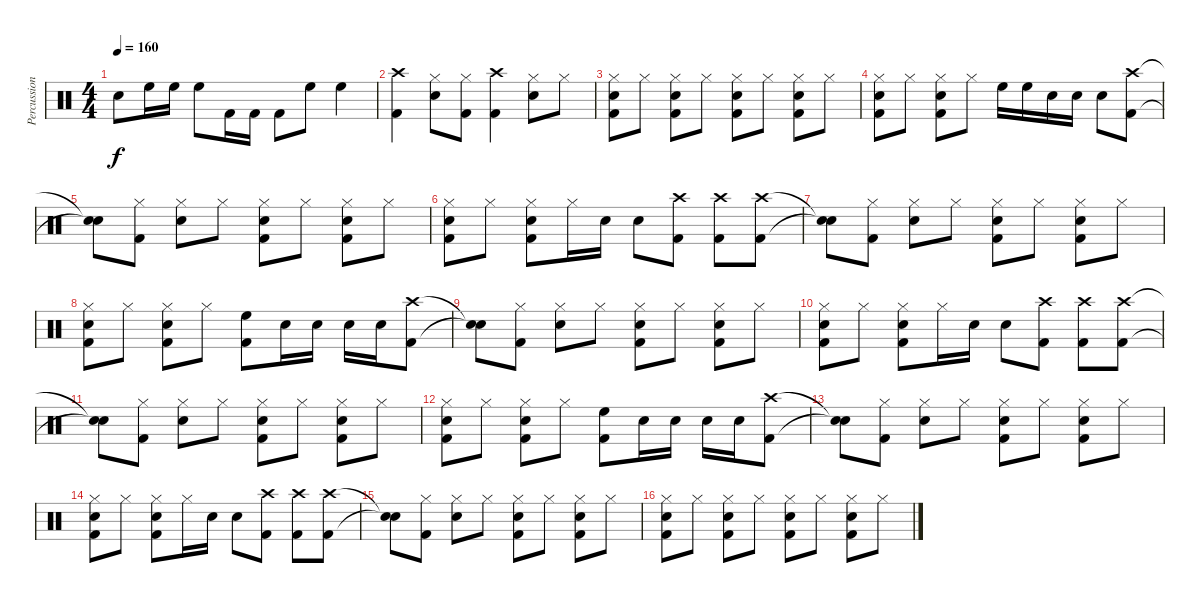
\track ("Percussion" "Percussion") {instrument percussion}
\staff {score}
\articulation defaults
\ts (4 4)
\tempo 160
\clef neutral
\ks c "Snare (hit) 2".8{dy f} "High Floor Tom (hit)".16 "High Floor Tom (hit)".16 "High Floor Tom (hit)".8 "Kick (hit) 2".16 "Kick (hit) 2".16 "Kick (hit) 2".8 "High Floor Tom (hit)".8 "High Floor Tom (hit)".4
|
("Crash high (hit)" "Kick (hit) 2").4 ("Hi-Hat (closed)" "Snare (hit) 2").8 ("Hi-Hat (closed)" "Kick (hit) 2").8 ("Crash high (hit)" "Kick (hit) 2").4 ("Hi-Hat (closed)" "Snare (hit) 2").8 "Hi-Hat (closed)".8 |
("Hi-Hat (closed)" "Snare (hit) 2" "Kick (hit) 2").8 "Hi-Hat (closed)".8 ("Hi-Hat (closed)" "Snare (hit) 2" "Kick (hit) 2").8 "Hi-Hat (closed)".8 ("Hi-Hat (closed)" "Snare (hit) 2" "Kick (hit) 2").8 "Hi-Hat (closed)".8 ("Hi-Hat (closed)" "Snare (hit) 2" "Kick (hit) 2").8 "Hi-Hat (closed)".8 |
("Hi-Hat (closed)" "Snare (hit) 2" "Kick (hit) 2").8 "Hi-Hat (closed)".8 ("Hi-Hat (closed)" "Snare (hit) 2" "Kick (hit) 2").8 "Hi-Hat (closed)".8 "High Floor Tom (hit)".16 "High Floor Tom (hit)".16 "Snare (hit) 2".16 "Snare (hit) 2".16 "Snare (hit) 2".8 ("Crash high (hit)" "Kick (hit) 2").8 |
("Snare (hit)"{t} "Snare (hit)"{t}).8 ("Hi-Hat (closed)" "Kick (hit) 2").8 ("Hi-Hat (closed)" "Snare (hit) 2").8 "Hi-Hat (closed)".8 ("Hi-Hat (closed)" "Snare (hit) 2" "Kick (hit) 2").8 "Hi-Hat (closed)".8 ("Hi-Hat (closed)" "Snare (hit) 2" "Kick (hit) 2").8 "Hi-Hat (closed)".8 |
("Hi-Hat (closed)" "Snare (hit) 2" "Kick (hit) 2").8 "Hi-Hat (closed)".8 ("Hi-Hat (closed)" "Snare (hit) 2" "Kick (hit) 2").8 "Hi-Hat (closed)".16 "Snare (hit) 2".16 "Snare (hit) 2".8 ("Crash high (hit)" "Kick (hit) 2").8 ("Crash high (hit)" "Kick (hit) 2").8 ("Crash high (hit)" "Kick (hit) 2").8 |
("Snare (hit)"{t} "Snare (hit)"{t}).8 ("Hi-Hat (closed)" "Kick (hit) 2").8 ("Hi-Hat (closed)" "Snare (hit) 2").8 "Hi-Hat (closed)".8 ("Hi-Hat (closed)" "Snare (hit) 2" "Kick (hit) 2").8 "Hi-Hat (closed)".8 ("Hi-Hat (closed)" "Snare (hit) 2" "Kick (hit) 2").8 "Hi-Hat (closed)".8 |
("Hi-Hat (closed)" "Snare (hit) 2" "Kick (hit) 2").8 "Hi-Hat (closed)".8 ("Hi-Hat (closed)" "Snare (hit) 2" "Kick (hit) 2").8 "Hi-Hat (closed)".8 ("High Floor Tom (hit)" "Kick (hit) 2").8 "Snare (hit) 2".16 "Snare (hit) 2".16 "Snare (hit) 2".16 "Snare (hit) 2".16 ("Crash high (hit)" "Kick (hit) 2").8 |
("Snare (hit)"{t} "Snare (hit)"{t}).8 ("Hi-Hat (closed)" "Kick (hit) 2").8 ("Hi-Hat (closed)" "Snare (hit) 2").8 "Hi-Hat (closed)".8 ("Hi-Hat (closed)" "Snare (hit) 2" "Kick (hit) 2").8 "Hi-Hat (closed)".8 ("Hi-Hat (closed)" "Snare (hit) 2" "Kick (hit) 2").8 "Hi-Hat (closed)".8 |
("Hi-Hat (closed)" "Snare (hit) 2" "Kick (hit) 2").8 "Hi-Hat (closed)".8 ("Hi-Hat (closed)" "Snare (hit) 2" "Kick (hit) 2").8 "Hi-Hat (closed)".16 "Snare (hit) 2".16 "Snare (hit) 2".8 ("Crash high (hit)" "Kick (hit) 2").8 ("Crash high (hit)" "Kick (hit) 2").8 ("Crash high (hit)" "Kick (hit) 2").8 |
("Snare (hit)"{t} "Snare (hit)"{t}).8 ("Hi-Hat (closed)" "Kick (hit) 2").8 ("Hi-Hat (closed)" "Snare (hit) 2").8 "Hi-Hat (closed)".8 ("Hi-Hat (closed)" "Snare (hit) 2" "Kick (hit) 2").8 "Hi-Hat (closed)".8 ("Hi-Hat (closed)" "Snare (hit) 2" "Kick (hit) 2").8 "Hi-Hat (closed)".8 |
("Hi-Hat (closed)" "Snare (hit) 2" "Kick (hit) 2").8 "Hi-Hat (closed)".8 ("Hi-Hat (closed)" "Snare (hit) 2" "Kick (hit) 2").8 "Hi-Hat (closed)".8 ("High Floor Tom (hit)" "Kick (hit) 2").8 "Snare (hit) 2".16 "Snare (hit) 2".16 "Snare (hit) 2".16 "Snare (hit) 2".16 ("Crash high (hit)" "Kick (hit) 2").8 |
("Snare (hit)"{t} "Snare (hit)"{t}).8 ("Hi-Hat (closed)" "Kick (hit) 2").8 ("Hi-Hat (closed)" "Snare (hit) 2").8 "Hi-Hat (closed)".8 ("Hi-Hat (closed)" "Snare (hit) 2" "Kick (hit) 2").8 "Hi-Hat (closed)".8 ("Hi-Hat (closed)" "Snare (hit) 2" "Kick (hit) 2").8 "Hi-Hat (closed)".8 |
("Hi-Hat (closed)" "Snare (hit) 2" "Kick (hit) 2").8 "Hi-Hat (closed)".8 ("Hi-Hat (closed)" "Snare (hit) 2" "Kick (hit) 2").8 "Hi-Hat (closed)".16 "Snare (hit) 2".16 "Snare (hit) 2".8 ("Crash high (hit)" "Kick (hit) 2").8 ("Crash high (hit)" "Kick (hit) 2").8 ("Crash high (hit)" "Kick (hit) 2").8 |
("Snare (hit)"{t} "Snare (hit)"{t}).8 ("Hi-Hat (closed)" "Kick (hit) 2").8 ("Hi-Hat (closed)" "Snare (hit) 2").8 "Hi-Hat (closed)".8 ("Hi-Hat (closed)" "Snare (hit) 2" "Kick (hit) 2").8 "Hi-Hat (closed)".8 ("Hi-Hat (closed)" "Snare (hit) 2" "Kick (hit) 2").8 "Hi-Hat (closed)".8 |
("Hi-Hat (closed)" "Snare (hit) 2" "Kick (hit) 2").8 "Hi-Hat (closed)".8 ("Hi-Hat (closed)" "Snare (hit) 2" "Kick (hit) 2").8 "Hi-Hat (closed)".8 ("Hi-Hat (closed)" "Snare (hit) 2" "Kick (hit) 2").8 "Hi-Hat (closed)".8 ("Hi-Hat (closed)" "Snare (hit) 2" "Kick (hit) 2").8 "Hi-Hat (closed)".8
